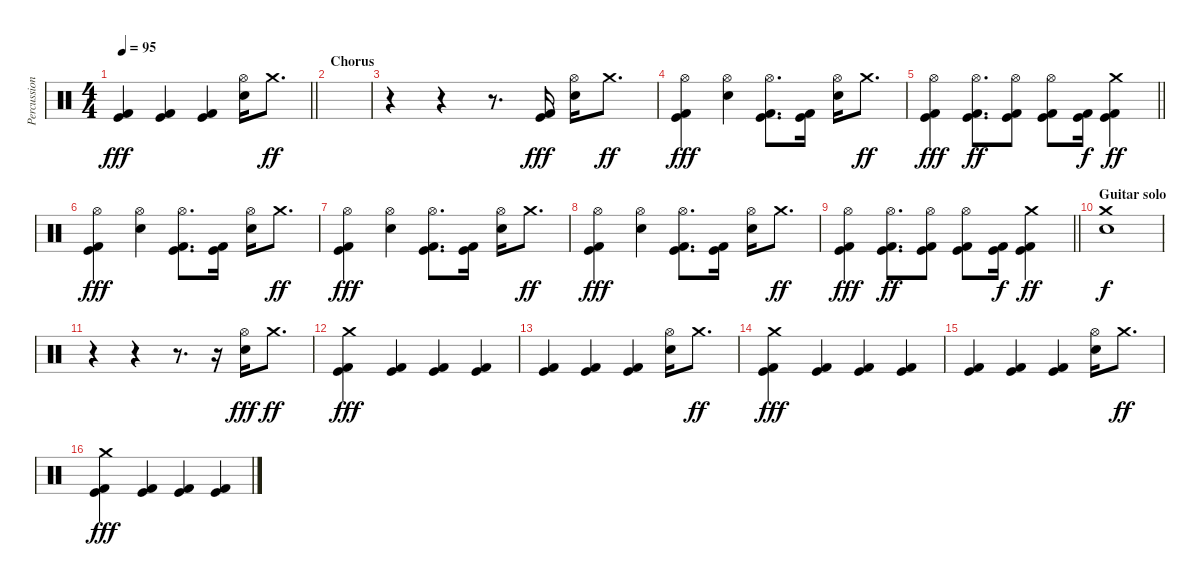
\track ("Percussion" "Percussion") {instrument percussion}
\staff {score}
\articulation defaults
\ts (4 4)
\tempo 95
\clef neutral
\barLineRight lightlight
\ks c
("Kick (hit)" "Kick (hit) 2").4{dy fff} ("Kick (hit)" "Kick (hit) 2").4 ("Kick (hit)" "Kick (hit) 2").4 ("Hi-Hat (open)" "Snare (hit) 2").16 "Crash medium (hit)".8{d dy ff} |
\section ("" "Chorus")
|
r.4 r.4 r.8{d} ("Kick (hit)" "Kick (hit) 2").16{dy fff} ("Hi-Hat (open)" "Snare (hit) 2").16 "Crash medium (hit)".8{d dy ff} |
("Hi-Hat (open)" "Kick (hit)" "Kick (hit) 2").4{dy fff} ("Hi-Hat (open)" "Snare (hit) 2").4 ("Hi-Hat (open)" "Kick (hit)" "Kick (hit) 2").8{d} ("Kick (hit)" "Kick (hit) 2").16 ("Hi-Hat (open)" "Snare (hit) 2").16 "Crash medium (hit)".8{d dy ff} |
\barLineRight lightlight
("Hi-Hat (open)" "Kick (hit)" "Kick (hit) 2").4{dy fff} ("Hi-Hat (open)" "Kick (hit)" "Kick (hit) 2").8{d dy ff} ("Hi-Hat (open)" "Kick (hit)" "Kick (hit) 2").8 ("Hi-Hat (open)" "Kick (hit)" "Kick (hit) 2").8 ("Kick (hit)" "Kick (hit) 2").16{dy f} ("Crash medium (hit)" "Kick (hit)" "Kick (hit) 2").4{dy ff} |
("Hi-Hat (open)" "Kick (hit)" "Kick (hit) 2").4{dy fff} ("Hi-Hat (open)" "Snare (hit) 2").4 ("Hi-Hat (open)" "Kick (hit)" "Kick (hit) 2").8{d} ("Kick (hit)" "Kick (hit) 2").16 ("Hi-Hat (open)" "Snare (hit) 2").16 "Crash medium (hit)".8{d dy ff} |
("Hi-Hat (open)" "Kick (hit)" "Kick (hit) 2").4{dy fff} ("Hi-Hat (open)" "Snare (hit) 2").4 ("Hi-Hat (open)" "Kick (hit)" "Kick (hit) 2").8{d} ("Kick (hit)" "Kick (hit) 2").16 ("Hi-Hat (open)" "Snare (hit) 2").16 "Crash medium (hit)".8{d dy ff} |
("Hi-Hat (open)" "Kick (hit)" "Kick (hit) 2").4{dy fff} ("Hi-Hat (open)" "Snare (hit) 2").4 ("Hi-Hat (open)" "Kick (hit)" "Kick (hit) 2").8{d} ("Kick (hit)" "Kick (hit) 2").16 ("Hi-Hat (open)" "Snare (hit) 2").16 "Crash medium (hit)".8{d dy ff} |
\barLineRight lightlight
("Hi-Hat (open)" "Kick (hit)" "Kick (hit) 2").4{dy fff} ("Hi-Hat (open)" "Kick (hit)" "Kick (hit) 2").8{d dy ff} ("Hi-Hat (open)" "Kick (hit)" "Kick (hit) 2").8 ("Hi-Hat (open)" "Kick (hit)" "Kick (hit) 2").8 ("Kick (hit)" "Kick (hit) 2").16{dy f} ("Crash medium (hit)" "Kick (hit)" "Kick (hit) 2").4{dy ff} |
\section ("" "Guitar solo")
("Crash medium (hit)" "Snare (hit) 2").1{dy f} |
r.4 r.4 r.8{d} r.16 ("Hi-Hat (open)" "Snare (hit) 2").16{dy fff} "Crash medium (hit)".8{d dy ff} |
("Crash medium (hit)" "Kick (hit)" "Kick (hit) 2").4{dy fff} ("Kick (hit)" "Kick (hit) 2").4 ("Kick (hit)" "Kick (hit) 2").4 ("Kick (hit)" "Kick (hit) 2").4 |
("Kick (hit)" "Kick (hit) 2").4 ("Kick (hit)" "Kick (hit) 2").4 ("Kick (hit)" "Kick (hit) 2").4 ("Hi-Hat (open)" "Snare (hit) 2").16 "Crash medium (hit)".8{d dy ff} |
("Crash medium (hit)" "Kick (hit)" "Kick (hit) 2").4{dy fff} ("Kick (hit)" "Kick (hit) 2").4 ("Kick (hit)" "Kick (hit) 2").4 ("Kick (hit)" "Kick (hit) 2").4 |
("Kick (hit)" "Kick (hit) 2").4 ("Kick (hit)" "Kick (hit) 2").4 ("Kick (hit)" "Kick (hit) 2").4 ("Hi-Hat (open)" "Snare (hit) 2").16 "Crash medium (hit)".8{d dy ff} |
("Crash medium (hit)" "Kick (hit)" "Kick (hit) 2").4{dy fff} ("Kick (hit)" "Kick (hit) 2").4 ("Kick (hit)" "Kick (hit) 2").4 ("Kick (hit)" "Kick (hit) 2").4
